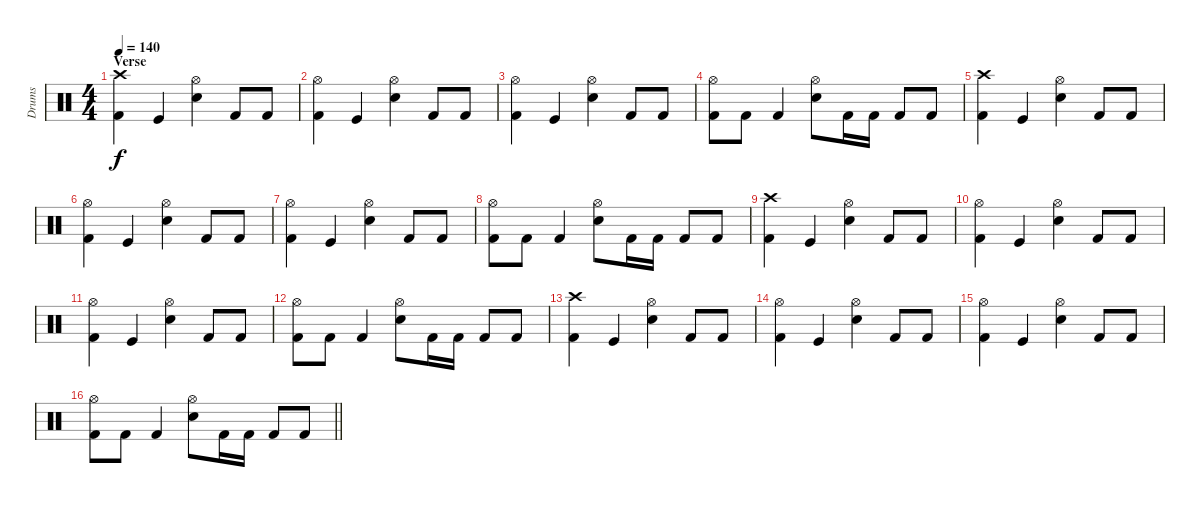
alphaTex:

\track ("Drums " "Drums ") {instrument percussion}
\staff {score}
\articulation defaults
\ts (4 4)
\section ("" "Verse")
\tempo 140
\clef neutral
\ks c
("Crash high (hit)" "Kick (hit) 2").4{dy f} "Kick (hit)".4 ("Hi-Hat (open)" "Electric Snare (hit)").4 "Kick (hit) 2".8 "Kick (hit) 2".8 |
("Hi-Hat (open)" "Kick (hit) 2").4 "Kick (hit)".4 ("Hi-Hat (open)" "Electric Snare (hit)").4 "Kick (hit) 2".8 "Kick (hit) 2".8 |
("Hi-Hat (open)" "Kick (hit) 2").4 "Kick (hit)".4 ("Hi-Hat (open)" "Electric Snare (hit)").4 "Kick (hit) 2".8 "Kick (hit) 2".8 |
("Hi-Hat (open)" "Kick (hit) 2").8 "Kick (hit) 2".8 "Kick (hit) 2".4 ("Hi-Hat (open)" "Electric Snare (hit)").8 "Kick (hit) 2".16 "Kick (hit) 2".16 "Kick (hit) 2".8 "Kick (hit) 2".8 |
("Crash high (hit)" "Kick (hit) 2").4 "Kick (hit)".4 ("Hi-Hat (open)" "Electric Snare (hit)").4 "Kick (hit) 2".8 "Kick (hit) 2".8 |
("Hi-Hat (open)" "Kick (hit) 2").4 "Kick (hit)".4 ("Hi-Hat (open)" "Electric Snare (hit)").4 "Kick (hit) 2".8 "Kick (hit) 2".8 |
("Hi-Hat (open)" "Kick (hit) 2").4 "Kick (hit)".4 ("Hi-Hat (open)" "Electric Snare (hit)").4 "Kick (hit) 2".8 "Kick (hit) 2".8 |
("Hi-Hat (open)" "Kick (hit) 2").8 "Kick (hit) 2".8 "Kick (hit) 2".4 ("Hi-Hat (open)" "Electric Snare (hit)").8 "Kick (hit) 2".16 "Kick (hit) 2".16 "Kick (hit) 2".8 "Kick (hit) 2".8 |
("Crash high (hit)" "Kick (hit) 2").4 "Kick (hit)".4 ("Hi-Hat (open)" "Electric Snare (hit)").4 "Kick (hit) 2".8 "Kick (hit) 2".8 |
("Hi-Hat (open)" "Kick (hit) 2").4 "Kick (hit)".4 ("Hi-Hat (open)" "Electric Snare (hit)").4 "Kick (hit) 2".8 "Kick (hit) 2".8 |
("Hi-Hat (open)" "Kick (hit) 2").4 "Kick (hit)".4 ("Hi-Hat (open)" "Electric Snare (hit)").4 "Kick (hit) 2".8 "Kick (hit) 2".8 |
("Hi-Hat (open)" "Kick (hit) 2").8 "Kick (hit) 2".8 "Kick (hit) 2".4 ("Hi-Hat (open)" "Electric Snare (hit)").8 "Kick (hit) 2".16 "Kick (hit) 2".16 "Kick (hit) 2".8 "Kick (hit) 2".8 |
("Crash high (hit)" "Kick (hit) 2").4 "Kick (hit)".4 ("Hi-Hat (open)" "Electric Snare (hit)").4 "Kick (hit) 2".8 "Kick (hit) 2".8 |
("Hi-Hat (open)" "Kick (hit) 2").4 "Kick (hit)".4 ("Hi-Hat (open)" "Electric Snare (hit)").4 "Kick (hit) 2".8 "Kick (hit) 2".8 |
("Hi-Hat (open)" "Kick (hit) 2").4 "Kick (hit)".4 ("Hi-Hat (open)" "Electric Snare (hit)").4 "Kick (hit) 2".8 "Kick (hit) 2".8 |
\barLineRight lightlight
("Hi-Hat (open)" "Kick (hit) 2").8 "Kick (hit) 2".8 "Kick (hit) 2".4 ("Hi-Hat (open)" "Electric Snare (hit)").8 "Kick (hit) 2".16 "Kick (hit) 2".16 "Kick (hit) 2".8 "Kick (hit) 2".8
